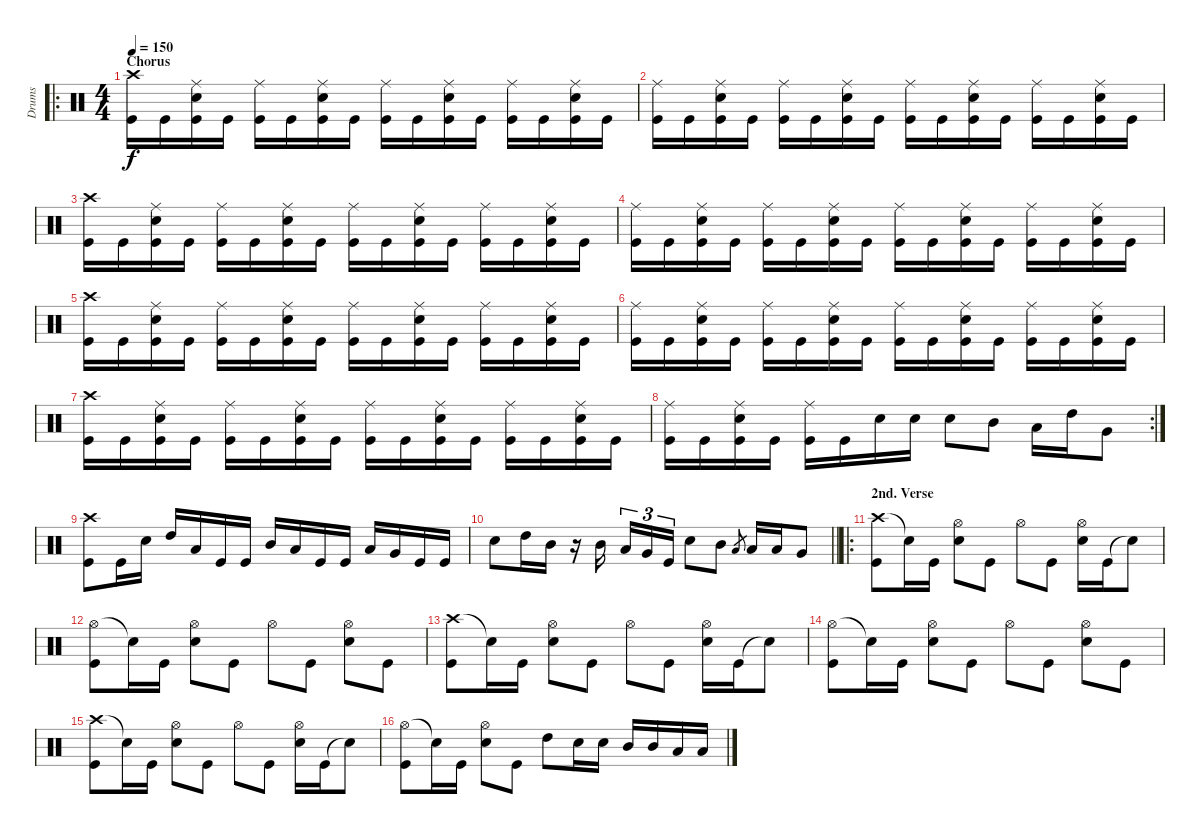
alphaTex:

\track ("Drums" "Drums") {instrument percussion}
\staff {score}
\articulation defaults
\ro
\ts (4 4)
\section ("" "Chorus")
\tempo 150
\clef neutral
\ks c
("Crash high (hit)" "Kick (hit)").16{dy f} "Kick (hit)".16 ("Ride (middle)" "Snare (hit) 2" "Kick (hit)").16 "Kick (hit)".16 ("Ride (middle)" "Kick (hit)").16 "Kick (hit)".16 ("Ride (middle)" "Snare (hit) 2" "Kick (hit)").16 "Kick (hit)".16 ("Ride (middle)" "Kick (hit)").16 "Kick (hit)".16 ("Ride (middle)" "Snare (hit) 2" "Kick (hit)").16 "Kick (hit)".16 ("Ride (middle)" "Kick (hit)").16 "Kick (hit)".16 ("Ride (middle)" "Snare (hit) 2" "Kick (hit)").16 "Kick (hit)".16 |
("Ride (middle)" "Kick (hit)").16 "Kick (hit)".16 ("Ride (middle)" "Snare (hit) 2" "Kick (hit)").16 "Kick (hit)".16 ("Ride (middle)" "Kick (hit)").16 "Kick (hit)".16 ("Ride (middle)" "Snare (hit) 2" "Kick (hit)").16 "Kick (hit)".16 ("Ride (middle)" "Kick (hit)").16 "Kick (hit)".16 ("Ride (middle)" "Snare (hit) 2" "Kick (hit)").16 "Kick (hit)".16 ("Ride (middle)" "Kick (hit)").16 "Kick (hit)".16 ("Ride (middle)" "Snare (hit) 2" "Kick (hit)").16 "Kick (hit)".16 |
("Crash high (hit)" "Kick (hit)").16 "Kick (hit)".16 ("Ride (middle)" "Snare (hit) 2" "Kick (hit)").16 "Kick (hit)".16 ("Ride (middle)" "Kick (hit)").16 "Kick (hit)".16 ("Ride (middle)" "Snare (hit) 2" "Kick (hit)").16 "Kick (hit)".16 ("Ride (middle)" "Kick (hit)").16 "Kick (hit)".16 ("Ride (middle)" "Snare (hit) 2" "Kick (hit)").16 "Kick (hit)".16 ("Ride (middle)" "Kick (hit)").16 "Kick (hit)".16 ("Ride (middle)" "Snare (hit) 2" "Kick (hit)").16 "Kick (hit)".16 |
("Ride (middle)" "Kick (hit)").16 "Kick (hit)".16 ("Ride (middle)" "Snare (hit) 2" "Kick (hit)").16 "Kick (hit)".16 ("Ride (middle)" "Kick (hit)").16 "Kick (hit)".16 ("Ride (middle)" "Snare (hit) 2" "Kick (hit)").16 "Kick (hit)".16 ("Ride (middle)" "Kick (hit)").16 "Kick (hit)".16 ("Ride (middle)" "Snare (hit) 2" "Kick (hit)").16 "Kick (hit)".16 ("Ride (middle)" "Kick (hit)").16 "Kick (hit)".16 ("Ride (middle)" "Snare (hit) 2" "Kick (hit)").16 "Kick (hit)".16 |
("Crash high (hit)" "Kick (hit)").16 "Kick (hit)".16 ("Ride (middle)" "Snare (hit) 2" "Kick (hit)").16 "Kick (hit)".16 ("Ride (middle)" "Kick (hit)").16 "Kick (hit)".16 ("Ride (middle)" "Snare (hit) 2" "Kick (hit)").16 "Kick (hit)".16 ("Ride (middle)" "Kick (hit)").16 "Kick (hit)".16 ("Ride (middle)" "Snare (hit) 2" "Kick (hit)").16 "Kick (hit)".16 ("Ride (middle)" "Kick (hit)").16 "Kick (hit)".16 ("Ride (middle)" "Snare (hit) 2" "Kick (hit)").16 "Kick (hit)".16 |
("Ride (middle)" "Kick (hit)").16 "Kick (hit)".16 ("Ride (middle)" "Snare (hit) 2" "Kick (hit)").16 "Kick (hit)".16 ("Ride (middle)" "Kick (hit)").16 "Kick (hit)".16 ("Ride (middle)" "Snare (hit) 2" "Kick (hit)").16 "Kick (hit)".16 ("Ride (middle)" "Kick (hit)").16 "Kick (hit)".16 ("Ride (middle)" "Snare (hit) 2" "Kick (hit)").16 "Kick (hit)".16 ("Ride (middle)" "Kick (hit)").16 "Kick (hit)".16 ("Ride (middle)" "Snare (hit) 2" "Kick (hit)").16 "Kick (hit)".16 |
("Crash high (hit)" "Kick (hit)").16 "Kick (hit)".16 ("Ride (middle)" "Snare (hit) 2" "Kick (hit)").16 "Kick (hit)".16 ("Ride (middle)" "Kick (hit)").16 "Kick (hit)".16 ("Ride (middle)" "Snare (hit) 2" "Kick (hit)").16 "Kick (hit)".16 ("Ride (middle)" "Kick (hit)").16 "Kick (hit)".16 ("Ride (middle)" "Snare (hit) 2" "Kick (hit)").16 "Kick (hit)".16 ("Ride (middle)" "Kick (hit)").16 "Kick (hit)".16 ("Ride (middle)" "Snare (hit) 2" "Kick (hit)").16 "Kick (hit)".16 |
\rc 2
("Ride (middle)" "Kick (hit)").16 "Kick (hit)".16 ("Ride (middle)" "Snare (hit) 2" "Kick (hit)").16 "Kick (hit)".16 ("Ride (middle)" "Kick (hit)").16 "Kick (hit)".16 "Snare (hit) 2".16 "Snare (hit) 2".16 "Snare (hit) 2".8 "Mid Tom (hit)".8 "Low Tom (hit)".16 "High Tom (hit)".16 "Very Low Tom (hit)".8 |
("Crash high (hit)" "Kick (hit)").8 "Kick (hit)".16 "Snare (hit) 2".16 "High Tom (hit)".16 "Low Tom (hit)".16 "Kick (hit)".16 "Kick (hit)".16 "Mid Tom (hit)".16 "Low Tom (hit)".16 "Kick (hit)".16 "Kick (hit)".16 "Low Tom (hit)".16 "Very Low Tom (hit)".16 "Kick (hit)".16 "Kick (hit)".16 |
\barLineRight lightlight "Snare (hit) 2".8 "High Tom (hit)".16 "Mid Tom (hit)".16
r.16 "Mid Tom (hit)".16 "Low Tom (hit)".16{tu (3 2)} "Very Low Tom (hit)".16{tu (3 2)} "Kick (hit)".16{tu (3 2)} "Snare (hit) 2".8 "Mid Tom (hit)".8 "Low Tom (hit)".8{gr} "Low Tom (hit)".16 "Low Tom (hit)".16 "Very Low Tom (hit)".8 |
\ro
\section ("" "2nd. Verse")
("Crash high (hit)" "Kick (hit)").8 "Snare (hit)"{t}.16 "Kick (hit)".16 ("Hi-Hat (open)" "Snare (hit) 2").8 "Kick (hit)".8 "Hi-Hat (open)".8 "Kick (hit)".8 ("Hi-Hat (open)" "Electric Snare (hit)").16 "Kick (hit)".16 "Snare (hit)"{t}.8 |
("Hi-Hat (open)" "Kick (hit)").8 "Snare (hit)"{t}.16 "Kick (hit)".16 ("Hi-Hat (open)" "Snare (hit) 2").8 "Kick (hit)".8 "Hi-Hat (open)".8 "Kick (hit)".8 ("Hi-Hat (open)" "Electric Snare (hit)").8 "Kick (hit)".8 |
("Crash high (hit)" "Kick (hit)").8 "Snare (hit)"{t}.16 "Kick (hit)".16 ("Hi-Hat (open)" "Snare (hit) 2").8 "Kick (hit)".8 "Hi-Hat (open)".8 "Kick (hit)".8 ("Hi-Hat (open)" "Electric Snare (hit)").16 "Kick (hit)".16 "Snare (hit)"{t}.8 |
("Hi-Hat (open)" "Kick (hit)").8 "Snare (hit)"{t}.16 "Kick (hit)".16 ("Hi-Hat (open)" "Snare (hit) 2").8 "Kick (hit)".8 "Hi-Hat (open)".8 "Kick (hit)".8 ("Hi-Hat (open)" "Electric Snare (hit)").8 "Kick (hit)".8 |
("Crash high (hit)" "Kick (hit)").8 "Snare (hit)"{t}.16 "Kick (hit)".16 ("Hi-Hat (open)" "Snare (hit) 2").8 "Kick (hit)".8 "Hi-Hat (open)".8 "Kick (hit)".8 ("Hi-Hat (open)" "Electric Snare (hit)").16 "Kick (hit)".16 "Snare (hit)"{t}.8 |
("Hi-Hat (open)" "Kick (hit)").8 "Snare (hit)"{t}.16 "Kick (hit)".16 ("Hi-Hat (open)" "Snare (hit) 2").8 "Kick (hit)".8 "High Tom (hit)".8 "Snare (hit) 2".16 "Snare (hit) 2".16 "Mid Tom (hit)".16 "Mid Tom (hit)".16 "Low Tom (hit)".16 "Low Tom (hit)".16
